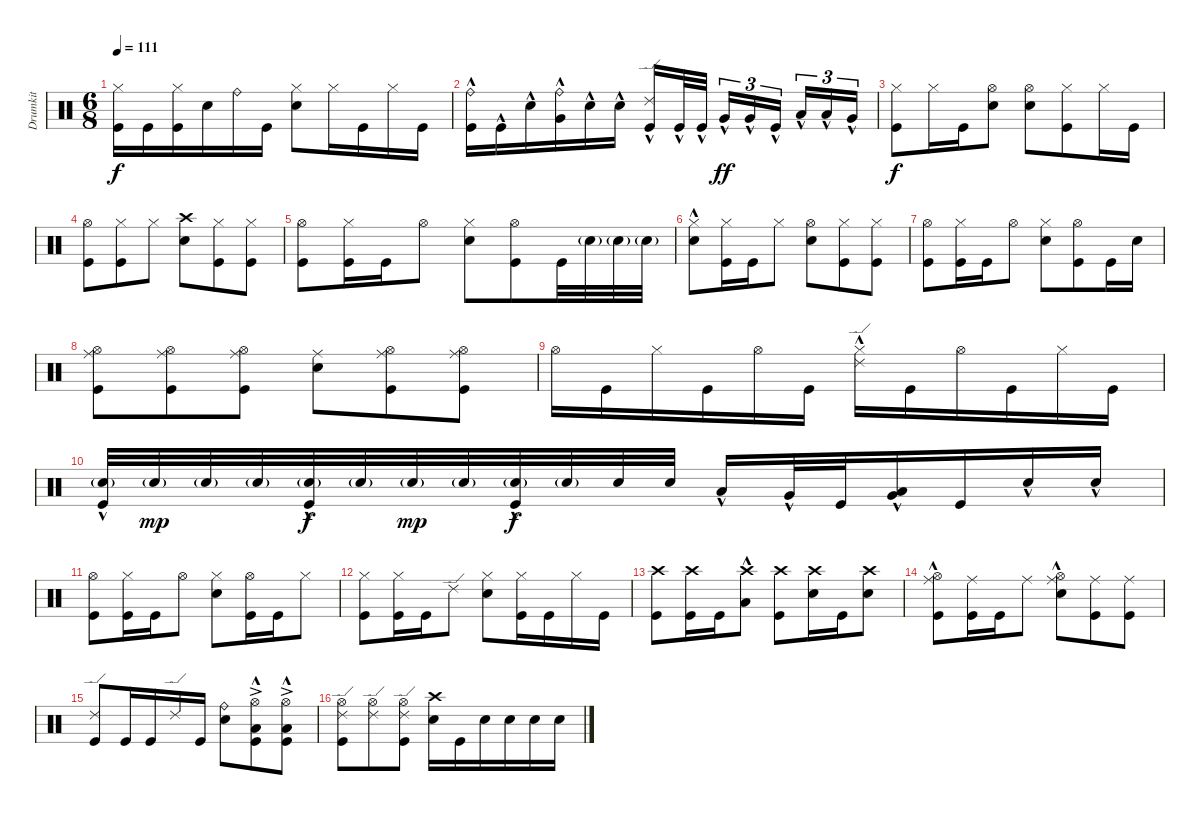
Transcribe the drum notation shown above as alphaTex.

\track ("Drumkit" "Drumkit") {instrument percussion}
\staff {score}
\articulation defaults
\ts (6 8)
\tempo 111
\clef neutral
\ks c
("Kick (hit)" "Hi-Hat (closed)").16{dy f} "Kick (hit)".16 ("Kick (hit)" "Hi-Hat (closed)").16 "Snare (hit) 2".16 "Ride (bell)".16 "Kick (hit)".16 ("Snare (hit) 2" "Hi-Hat (closed)").8 "Hi-Hat (closed)".16 "Kick (hit)".16 "Hi-Hat (closed)".16 "Kick (hit)".16 |
("Kick (hit)"{hac} "Ride (bell)").16 "Kick (hit)"{hac}.16 "Snare (hit) 2"{hac}.16 ("Very Low Tom (hit)"{hac} "Ride (bell)").16 "Snare (hit) 2"{hac}.16 "Snare (hit) 2"{hac}.16 ("Kick (hit)"{hac} "Ride (edge) 2").16 "Kick (hit)"{hac}.32 "Kick (hit)"{hac}.32 "Very Low Tom (hit)"{hac}.16{tu (3 2) dy ff} "Very Low Tom (hit)"{hac}.16{tu (3 2)} "Kick (hit)"{hac}.16{tu (3 2)} "Low Tom (hit)"{hac}.16{tu (3 2)} "Low Tom (hit)"{hac}.16{tu (3 2)} "Very Low Tom (hit)"{hac}.16{tu (3 2)} |
("Kick (hit)" "Hi-Hat (closed)").8{dy f} "Hi-Hat (closed)".16 "Kick (hit)".16 ("Snare (hit) 2" "Hi-Hat (open)").8 ("Snare (hit) 2" "Hi-Hat (open)").8 ("Kick (hit)" "Hi-Hat (closed)").8 "Hi-Hat (closed)".16 "Kick (hit)".16 |
("Kick (hit)" "Hi-Hat (open)").8 ("Kick (hit)" "Hi-Hat (closed)").8 "Hi-Hat (closed)".8 ("Snare (hit) 2" "Crash high (hit)").8 ("Kick (hit)" "Hi-Hat (closed)").8 ("Kick (hit)" "Hi-Hat (closed)").8 |
("Kick (hit)" "Hi-Hat (open)").8 ("Kick (hit)" "Hi-Hat (closed)").16 "Kick (hit)".16 "Hi-Hat (open)".8 ("Snare (hit) 2" "Hi-Hat (closed)").8 ("Kick (hit)" "Hi-Hat (open)").8 "Kick (hit)".32 "Snare (hit) 2"{g}.32 "Snare (hit) 2"{g}.32 "Snare (hit) 2"{g}.32 |
("Snare (hit) 2"{hac} "Hi-Hat (closed)").8 ("Kick (hit)" "Hi-Hat (closed)").16 "Kick (hit)".16 "Hi-Hat (closed)".8 ("Snare (hit) 2" "Hi-Hat (open)").8 ("Kick (hit)" "Hi-Hat (closed)").8 ("Kick (hit)" "Hi-Hat (closed)").8 |
("Kick (hit)" "Hi-Hat (open)").8 ("Kick (hit)" "Hi-Hat (closed)").16 "Kick (hit)".16 "Hi-Hat (open)".8 ("Snare (hit) 2" "Hi-Hat (closed)").8 ("Kick (hit)" "Hi-Hat (open)").8 "Kick (hit)".16 "Snare (hit) 2".16 |
("Kick (hit)" "Ride (middle)" "Hi-Hat (open)").8 ("Kick (hit)" "Hi-Hat (open)" "Ride (middle)").8 ("Kick (hit)" "Hi-Hat (open)" "Ride (middle)").8 ("Snare (hit) 2" "Ride (middle)").8 ("Kick (hit)" "Hi-Hat (open)" "Ride (middle)").8 ("Kick (hit)" "Hi-Hat (open)" "Ride (middle)").8 |
"Hi-Hat (open)".16 "Kick (hit)".16 "Hi-Hat (closed)".16 "Kick (hit)".16 "Hi-Hat (open)".16 "Kick (hit)".16 ("Hi-Hat (closed)" "Ride (edge) 2"{hac}).16 "Kick (hit)".16 "Hi-Hat (open)".16 "Kick (hit)".16 "Hi-Hat (closed)".16 "Kick (hit)".16 |
("Kick (hit)"{hac} "Snare (hit) 2"{g}).32 "Snare (hit) 2"{g}.32{dy mp} "Snare (hit) 2"{g}.32 "Snare (hit) 2"{g}.32 ("Kick (hit)"{hac} "Snare (hit) 2"{g}).32{dy f} "Snare (hit) 2"{g}.32 "Snare (hit) 2"{g}.32{dy mp} "Snare (hit) 2"{g}.32 ("Kick (hit)"{hac} "Snare (hit) 2"{g}).32{dy f} "Snare (hit) 2"{g}.32 "Snare (hit) 2".32 "Snare (hit) 2".32 "Low Tom (hit)"{hac}.16 "Very Low Tom (hit)"{hac}.32 "Kick (hit)".32 ("Very Low Tom (hit)"{hac} "Low Tom (hit)"{hac}).16 "Kick (hit)".16 "Snare (hit) 2"{hac}.16 "Snare (hit) 2"{hac}.16 |
("Kick (hit)" "Hi-Hat (open)").8 ("Kick (hit)" "Hi-Hat (closed)").16 "Kick (hit)".16 "Hi-Hat (open)".8 ("Snare (hit) 2" "Hi-Hat (closed)").8 ("Kick (hit)" "Hi-Hat (open)").16 "Kick (hit)".16 "Hi-Hat (closed)".8 |
("Kick (hit)" "Hi-Hat (closed)").8 ("Kick (hit)" "Hi-Hat (closed)").16 "Kick (hit)".16 "Ride (edge) 2".8 ("Snare (hit) 2" "Hi-Hat (closed)").8 ("Kick (hit)" "Hi-Hat (closed)").16 "Kick (hit)".16 "Hi-Hat (closed)".16 "Kick (hit)".16 |
("Kick (hit)" "Crash high (hit)").8 ("Kick (hit)" "Crash high (hit)").16 "Kick (hit)".16 ("Low Tom (hit)"{hac} "Crash high (hit)").8 ("Kick (hit)" "Crash high (hit)").8 ("Snare (hit) 2" "Crash high (hit)").16 "Kick (hit)".16 ("Snare (hit) 2" "Crash high (hit)").8 |
("Kick (hit)" "Ride (middle)" "Hi-Hat (open)"{hac}).8 ("Kick (hit)" "Ride (middle)").16 "Kick (hit)".16 "Ride (middle)".8 ("Snare (hit) 2" "Ride (middle)" "Hi-Hat (open)"{hac}).8 ("Kick (hit)" "Ride (middle)").8 ("Kick (hit)" "Ride (middle)").8 |
("Kick (hit)" "Ride (edge) 2").8 "Kick (hit)".16 "Kick (hit)".16 "Ride (edge) 2".16 "Kick (hit)".16 ("Snare (hit) 2" "Ride (bell)").8 ("Hi-Hat (open)"{ac} "Low Tom (hit)"{hac} "Kick (hit)"{hac}).8 ("Hi-Hat (open)"{ac} "Low Tom (hit)"{hac} "Kick (hit)"{hac}).8 |
("Kick (hit)" "Hi-Hat (open)" "Ride (edge) 2").8 ("Hi-Hat (open)" "Ride (edge) 2").8 ("Kick (hit)" "Hi-Hat (open)" "Ride (edge) 2").8 ("Snare (hit) 2" "Crash high (hit)").16 "Kick (hit)".16 "Snare (hit) 2".16 "Snare (hit) 2".16 "Snare (hit) 2".16 "Snare (hit) 2".16
